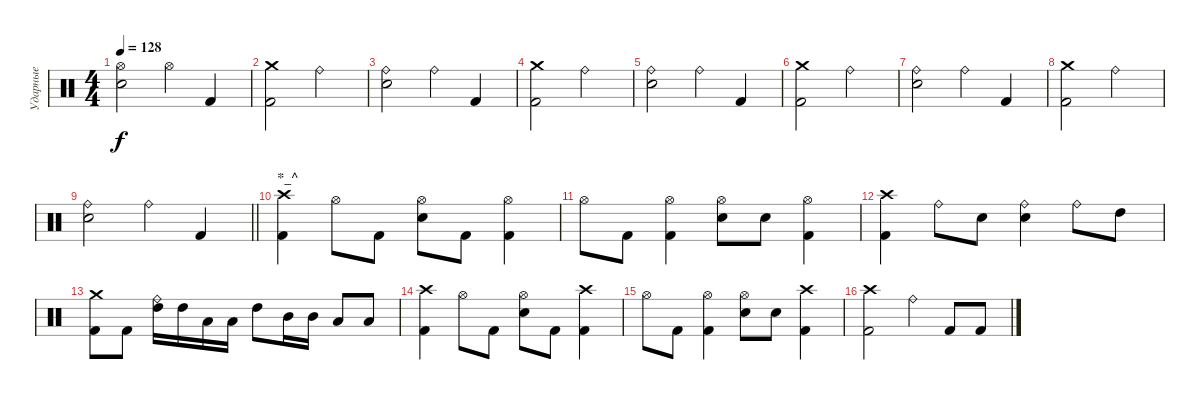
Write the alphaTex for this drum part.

\track ("Ударные" "Ударные") {instrument percussion}
\staff {score}
\articulation defaults
\ts (4 4)
\tempo 128
\clef neutral
\ks c
("Hi-Hat (open)" "Snare (hit) 2").2{dy f} "Hi-Hat (open)".4 "Kick (hit) 2".4 |
("Crash medium (hit)" "Kick (hit) 2").2 "Ride (bell)".2 |
("Ride (bell)" "Snare (hit) 2").2 "Ride (bell)".4 "Kick (hit) 2".4 |
("Crash medium (hit)" "Kick (hit) 2").2 "Ride (bell)".2 |
("Ride (bell)" "Snare (hit) 2").2 "Ride (bell)".4 "Kick (hit) 2".4 |
("Crash medium (hit)" "Kick (hit) 2").2 "Ride (bell)".2 |
("Ride (bell)" "Snare (hit) 2").2 "Ride (bell)".4 "Kick (hit) 2".4 |
("Crash medium (hit)" "Kick (hit) 2").2 "Ride (bell)".2 |
\barLineRight lightlight
("Ride (bell)" "Snare (hit) 2").2 "Ride (bell)".4 "Kick (hit) 2".4 |
\section ("" "*_^")
("Crash high (hit)" "Kick (hit) 2").4 "Hi-Hat (open)".8 "Kick (hit) 2".8 ("Hi-Hat (open)" "Snare (hit) 2").8 "Kick (hit) 2".8 ("Hi-Hat (open)" "Kick (hit) 2").4 |
"Hi-Hat (open)".8 "Kick (hit) 2".8 ("Hi-Hat (open)" "Kick (hit) 2").4 ("Hi-Hat (open)" "Snare (hit) 2").8 "Snare (hit) 2".8 ("Hi-Hat (open)" "Kick (hit) 2").4 |
("Crash high (hit)" "Kick (hit) 2").4 "Ride (bell)".8 "Snare (hit) 2".8 ("Ride (bell)" "Snare (hit) 2").4 "Ride (bell)".8 "High Tom (hit)".8 |
("Crash medium (hit)" "Kick (hit) 2").8 "Kick (hit) 2".8 ("Ride (bell)" "High Tom (hit)").16 "High Tom (hit)".16 "Low Tom (hit)".16 "Low Tom (hit)".16 "High Tom (hit)".8 "Mid Tom (hit)".16 "Mid Tom (hit)".16 "Low Tom (hit)".8 "Low Tom (hit)".8 |
("Crash high (hit)" "Kick (hit) 2").4 "Hi-Hat (open)".8 "Kick (hit) 2".8 ("Hi-Hat (open)" "Snare (hit) 2").8 "Kick (hit) 2".8 ("Crash high (hit)" "Kick (hit) 2").4 |
"Hi-Hat (open)".8 "Kick (hit) 2".8 ("Hi-Hat (open)" "Kick (hit) 2").4 ("Hi-Hat (open)" "Snare (hit) 2").8 "Snare (hit) 2".8 ("Crash high (hit)" "Kick (hit) 2").4 |
("Crash high (hit)" "Kick (hit) 2").2 "Ride (bell)".4 "Kick (hit) 2".8 "Kick (hit) 2".8
